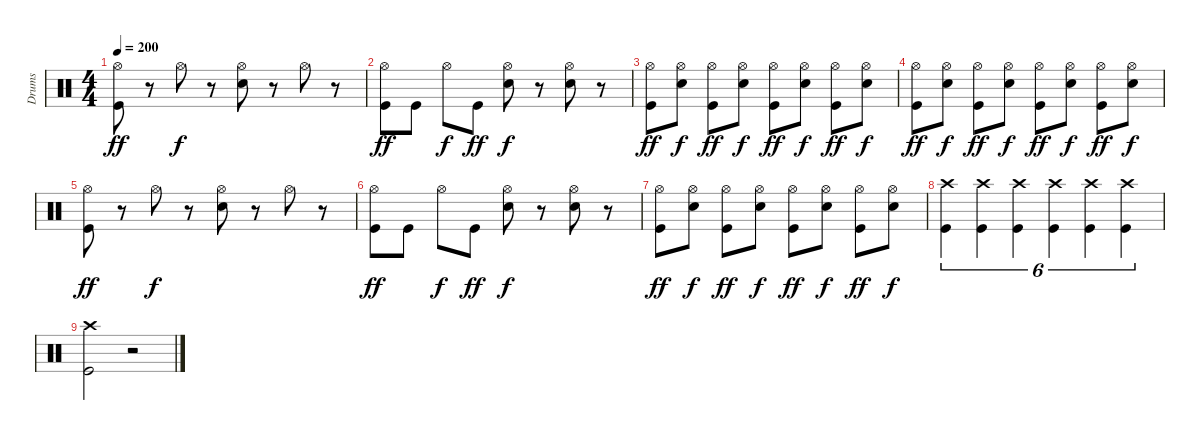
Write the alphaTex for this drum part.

\track ("Drums" "Drums") {instrument percussion}
\staff {score}
\articulation defaults
\ts (4 4)
\tempo 200
\clef neutral
\ks c
("Hi-Hat (open)" "Kick (hit)").8{dy ff} r.8 "Hi-Hat (open)".8{dy f} r.8 ("Hi-Hat (open)" "Electric Snare (hit)").8 r.8 "Hi-Hat (open)".8 r.8 |
("Hi-Hat (open)" "Kick (hit)").8{dy ff} "Kick (hit)".8 "Hi-Hat (open)".8{dy f} "Kick (hit)".8{dy ff} ("Hi-Hat (open)" "Electric Snare (hit)").8{dy f} r.8 ("Hi-Hat (open)" "Electric Snare (hit)").8 r.8 |
("Hi-Hat (open)" "Kick (hit)").8{dy ff} ("Hi-Hat (open)" "Electric Snare (hit)").8{dy f} ("Hi-Hat (open)" "Kick (hit)").8{dy ff} ("Hi-Hat (open)" "Electric Snare (hit)").8{dy f} ("Hi-Hat (open)" "Kick (hit)").8{dy ff} ("Hi-Hat (open)" "Electric Snare (hit)").8{dy f} ("Hi-Hat (open)" "Kick (hit)").8{dy ff} ("Hi-Hat (open)" "Electric Snare (hit)").8{dy f} |
("Hi-Hat (open)" "Kick (hit)").8{dy ff} ("Hi-Hat (open)" "Electric Snare (hit)").8{dy f} ("Hi-Hat (open)" "Kick (hit)").8{dy ff} ("Hi-Hat (open)" "Electric Snare (hit)").8{dy f} ("Hi-Hat (open)" "Kick (hit)").8{dy ff} ("Hi-Hat (open)" "Electric Snare (hit)").8{dy f} ("Hi-Hat (open)" "Kick (hit)").8{dy ff} ("Hi-Hat (open)" "Electric Snare (hit)").8{dy f} |
("Hi-Hat (open)" "Kick (hit)").8{dy ff} r.8 "Hi-Hat (open)".8{dy f} r.8 ("Hi-Hat (open)" "Electric Snare (hit)").8 r.8 "Hi-Hat (open)".8 r.8 |
("Hi-Hat (open)" "Kick (hit)").8{dy ff} "Kick (hit)".8 "Hi-Hat (open)".8{dy f} "Kick (hit)".8{dy ff} ("Hi-Hat (open)" "Electric Snare (hit)").8{dy f} r.8 ("Hi-Hat (open)" "Electric Snare (hit)").8 r.8 |
("Hi-Hat (open)" "Kick (hit)").8{dy ff} ("Hi-Hat (open)" "Electric Snare (hit)").8{dy f} ("Hi-Hat (open)" "Kick (hit)").8{dy ff} ("Hi-Hat (open)" "Electric Snare (hit)").8{dy f} ("Hi-Hat (open)" "Kick (hit)").8{dy ff} ("Hi-Hat (open)" "Electric Snare (hit)").8{dy f} ("Hi-Hat (open)" "Kick (hit)").8{dy ff} ("Hi-Hat (open)" "Electric Snare (hit)").8{dy f} |
("Crash high (hit)" "Kick (hit)").4{tu (6 4)} ("Crash high (hit)" "Kick (hit)").4{tu (6 4)} ("Crash high (hit)" "Kick (hit)").4{tu (6 4)} ("Crash high (hit)" "Kick (hit)").4{tu (6 4)} ("Crash high (hit)" "Kick (hit)").4{tu (6 4)} ("Crash high (hit)" "Kick (hit)").4{tu (6 4)} |
("Crash high (hit)" "Kick (hit)").2 r.2
